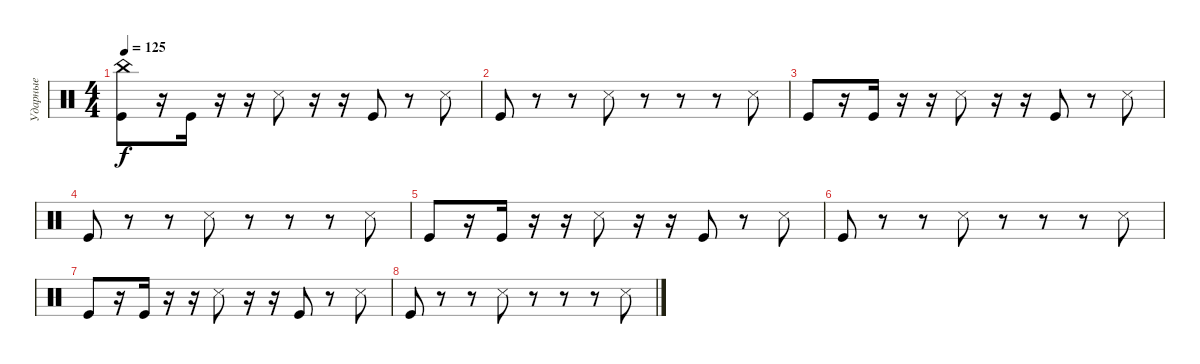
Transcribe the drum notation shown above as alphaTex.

\track ("Ударные" "Ударные") {instrument percussion}
\staff {score}
\articulation defaults
\ts (4 4)
\tempo 125
\clef neutral
\ks c
("China (hit)" "Kick (hit)").8{dy f} r.16 "Kick (hit)".16 r.16 r.16 "Snare (side stick) 3".8 r.16 r.16 "Kick (hit)".8 r.8 "Snare (side stick) 3".8 |
"Kick (hit)".8 r.8 r.8 "Snare (side stick) 3".8 r.8 r.8 r.8 "Snare (side stick) 3".8 |
"Kick (hit)".8 r.16 "Kick (hit)".16 r.16 r.16 "Snare (side stick) 3".8 r.16 r.16 "Kick (hit)".8 r.8 "Snare (side stick) 3".8 |
"Kick (hit)".8 r.8 r.8 "Snare (side stick) 3".8 r.8 r.8 r.8 "Snare (side stick) 3".8 |
"Kick (hit)".8 r.16 "Kick (hit)".16 r.16 r.16 "Snare (side stick) 3".8 r.16 r.16 "Kick (hit)".8 r.8 "Snare (side stick) 3".8 |
"Kick (hit)".8 r.8 r.8 "Snare (side stick) 3".8 r.8 r.8 r.8 "Snare (side stick) 3".8 |
"Kick (hit)".8 r.16 "Kick (hit)".16 r.16 r.16 "Snare (side stick) 3".8 r.16 r.16 "Kick (hit)".8 r.8 "Snare (side stick) 3".8 |
"Kick (hit)".8 r.8 r.8 "Snare (side stick) 3".8 r.8 r.8 r.8 "Snare (side stick) 3".8
